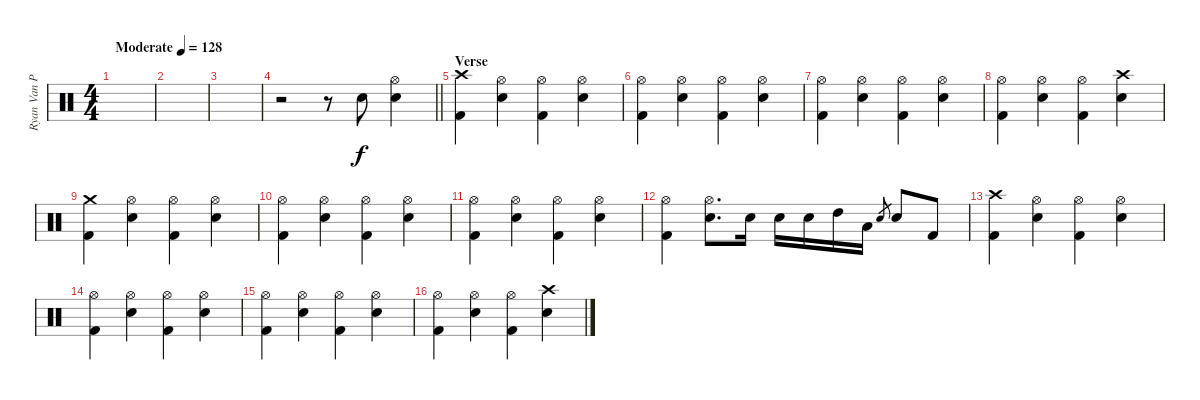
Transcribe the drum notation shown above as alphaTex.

\track ("Ryan Van Poederooyen" "Ryan Van P") {instrument percussion}
\staff {score}
\articulation defaults
\ts (4 4)
\tempo (128 "Moderate")
\clef neutral
\ks c
|
|
|
\barLineRight lightlight
r.2 r.8 "Electric Snare (hit)".8 ("Hi-Hat (open)" "Electric Snare (hit)").4 |
\section ("" "Verse")
("Crash high (hit)" "Kick (hit) 2").4 ("Hi-Hat (open)" "Electric Snare (hit)").4 ("Hi-Hat (open)" "Kick (hit) 2").4 ("Hi-Hat (open)" "Electric Snare (hit)").4 |
("Hi-Hat (open)" "Kick (hit) 2").4 ("Hi-Hat (open)" "Electric Snare (hit)").4 ("Hi-Hat (open)" "Kick (hit) 2").4 ("Hi-Hat (open)" "Electric Snare (hit)").4 |
("Hi-Hat (open)" "Kick (hit) 2").4 ("Hi-Hat (open)" "Electric Snare (hit)").4 ("Hi-Hat (open)" "Kick (hit) 2").4 ("Hi-Hat (open)" "Electric Snare (hit)").4 |
("Hi-Hat (open)" "Kick (hit) 2").4 ("Hi-Hat (open)" "Electric Snare (hit)").4 ("Hi-Hat (open)" "Kick (hit) 2").4 ("Crash high (hit)" "Electric Snare (hit)").4 |
("Crash medium (hit)" "Kick (hit) 2").4 ("Hi-Hat (open)" "Electric Snare (hit)").4 ("Hi-Hat (open)" "Kick (hit) 2").4 ("Hi-Hat (open)" "Electric Snare (hit)").4 |
("Hi-Hat (open)" "Kick (hit) 2").4 ("Hi-Hat (open)" "Electric Snare (hit)").4 ("Hi-Hat (open)" "Kick (hit) 2").4 ("Hi-Hat (open)" "Electric Snare (hit)").4 |
("Hi-Hat (open)" "Kick (hit) 2").4 ("Hi-Hat (open)" "Electric Snare (hit)").4 ("Hi-Hat (open)" "Kick (hit) 2").4 ("Hi-Hat (open)" "Electric Snare (hit)").4 |
("Hi-Hat (open)" "Kick (hit) 2").4 ("Hi-Hat (open)" "Electric Snare (hit)").8{d} "Electric Snare (hit)".16 "Electric Snare (hit)".16 "Electric Snare (hit)".16 "High Tom (hit)".16 "Low Tom (hit)".16 "Electric Snare (hit)".8{gr} "Electric Snare (hit)".8 "Kick (hit) 2".8 |
("Crash high (hit)" "Kick (hit) 2").4 ("Hi-Hat (open)" "Electric Snare (hit)").4 ("Hi-Hat (open)" "Kick (hit) 2").4 ("Hi-Hat (open)" "Electric Snare (hit)").4 |
("Hi-Hat (open)" "Kick (hit) 2").4 ("Hi-Hat (open)" "Electric Snare (hit)").4 ("Hi-Hat (open)" "Kick (hit) 2").4 ("Hi-Hat (open)" "Electric Snare (hit)").4 |
("Hi-Hat (open)" "Kick (hit) 2").4 ("Hi-Hat (open)" "Electric Snare (hit)").4 ("Hi-Hat (open)" "Kick (hit) 2").4 ("Hi-Hat (open)" "Electric Snare (hit)").4 |
("Hi-Hat (open)" "Kick (hit) 2").4 ("Hi-Hat (open)" "Electric Snare (hit)").4 ("Hi-Hat (open)" "Kick (hit) 2").4 ("Crash high (hit)" "Electric Snare (hit)").4
